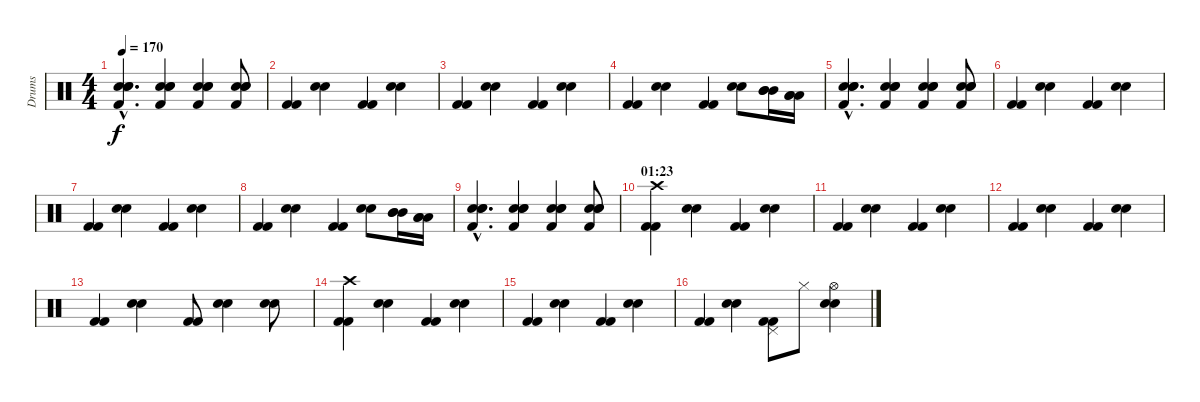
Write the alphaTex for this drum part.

\track ("Drums" "Drums") {instrument percussion}
\staff {score}
\articulation defaults
\ts (4 4)
\tempo 170
\clef neutral
\ks c
("Snare (hit) 2"{hac} "Electric Snare (hit)"{hac} "Hand Clap (hit)"{hac} "Kick (hit) 2"{hac}).4{d dy f} ("Snare (hit) 2" "Electric Snare (hit)" "Hand Clap (hit)" "Kick (hit) 2").4 ("Snare (hit) 2" "Electric Snare (hit)" "Hand Clap (hit)" "Kick (hit) 2").4 ("Snare (hit) 2" "Electric Snare (hit)" "Hand Clap (hit)" "Kick (hit) 2").8 |
("Kick (hit) 2" "Kick (hit) 2").4 ("Snare (hit) 2" "Hand Clap (hit)").4 ("Kick (hit) 2" "Kick (hit) 2").4 ("Snare (hit) 2" "Hand Clap (hit)").4 |
("Kick (hit) 2" "Kick (hit) 2").4 ("Snare (hit) 2" "Hand Clap (hit)").4 ("Kick (hit) 2" "Kick (hit) 2").4 ("Snare (hit) 2" "Hand Clap (hit)").4 |
("Kick (hit) 2" "Kick (hit) 2").4 ("Snare (hit) 2" "Hand Clap (hit)").4 ("Kick (hit) 2" "Kick (hit) 2").4 ("Snare (hit) 2" "Hand Clap (hit)").8 ("Mid Tom (hit)" "Mid Tom (hit)" "Mid Tom (hit)").16 ("Low Floor Tom (hit)" "Low Floor Tom (hit)" "Low Floor Tom (hit)").16 |
("Snare (hit) 2"{hac} "Electric Snare (hit)"{hac} "Hand Clap (hit)"{hac} "Kick (hit) 2"{hac}).4{d} ("Snare (hit) 2" "Electric Snare (hit)" "Hand Clap (hit)" "Kick (hit) 2").4 ("Snare (hit) 2" "Electric Snare (hit)" "Hand Clap (hit)" "Kick (hit) 2").4 ("Snare (hit) 2" "Electric Snare (hit)" "Hand Clap (hit)" "Kick (hit) 2").8 |
("Kick (hit) 2" "Kick (hit) 2").4 ("Snare (hit) 2" "Hand Clap (hit)").4 ("Kick (hit) 2" "Kick (hit) 2").4 ("Snare (hit) 2" "Hand Clap (hit)").4 |
("Kick (hit) 2" "Kick (hit) 2").4 ("Snare (hit) 2" "Hand Clap (hit)").4 ("Kick (hit) 2" "Kick (hit) 2").4 ("Snare (hit) 2" "Hand Clap (hit)").4 |
("Kick (hit) 2" "Kick (hit) 2").4 ("Snare (hit) 2" "Hand Clap (hit)").4 ("Kick (hit) 2" "Kick (hit) 2").4 ("Snare (hit) 2" "Hand Clap (hit)").8 ("Mid Tom (hit)" "Mid Tom (hit)" "Mid Tom (hit)").16 ("Low Floor Tom (hit)" "Low Floor Tom (hit)" "Low Floor Tom (hit)").16 |
("Snare (hit) 2"{hac} "Electric Snare (hit)"{hac} "Hand Clap (hit)"{hac} "Kick (hit) 2"{hac}).4{d} ("Snare (hit) 2" "Electric Snare (hit)" "Hand Clap (hit)" "Kick (hit) 2").4 ("Snare (hit) 2" "Electric Snare (hit)" "Hand Clap (hit)" "Kick (hit) 2").4 ("Snare (hit) 2" "Electric Snare (hit)" "Hand Clap (hit)" "Kick (hit) 2").8 |
\section ("" "01:23")
("Kick (hit) 2" "Kick (hit) 2" "Crash high (hit)").4 ("Snare (hit) 2" "Hand Clap (hit)").4 ("Kick (hit) 2" "Kick (hit) 2").4 ("Snare (hit) 2" "Hand Clap (hit)").4 |
("Kick (hit) 2" "Kick (hit) 2").4 ("Snare (hit) 2" "Hand Clap (hit)").4 ("Kick (hit) 2" "Kick (hit) 2").4 ("Snare (hit) 2" "Hand Clap (hit)").4 |
("Kick (hit) 2" "Kick (hit) 2").4 ("Snare (hit) 2" "Hand Clap (hit)").4 ("Kick (hit) 2" "Kick (hit) 2").4 ("Snare (hit) 2" "Hand Clap (hit)").4 |
("Kick (hit) 2" "Kick (hit) 2").4 ("Snare (hit) 2" "Hand Clap (hit)").4 ("Kick (hit) 2" "Kick (hit) 2").8 ("Snare (hit) 2" "Hand Clap (hit)").4 ("Snare (hit) 2" "Hand Clap (hit)").8 |
("Kick (hit) 2" "Kick (hit) 2" "Crash high (hit)").4 ("Snare (hit) 2" "Hand Clap (hit)").4 ("Kick (hit) 2" "Kick (hit) 2").4 ("Snare (hit) 2" "Hand Clap (hit)").4 |
("Kick (hit) 2" "Kick (hit) 2").4 ("Snare (hit) 2" "Hand Clap (hit)").4 ("Kick (hit) 2" "Kick (hit) 2").4 ("Snare (hit) 2" "Hand Clap (hit)").4 |
("Kick (hit) 2" "Kick (hit) 2").4 ("Snare (hit) 2" "Hand Clap (hit)").4 ("Kick (hit) 2" "Kick (hit) 2" "Pedal Hi-Hat (hit)").8 "Hi-Hat (closed)".8 ("Snare (hit) 2" "Hand Clap (hit)" "Hi-Hat (open)").4
